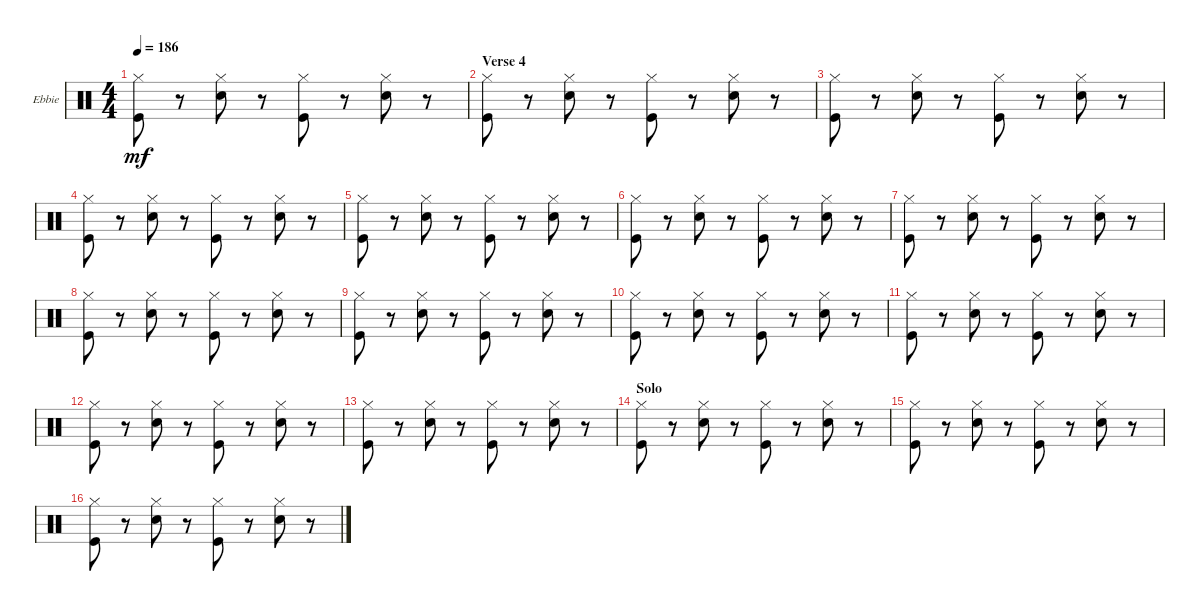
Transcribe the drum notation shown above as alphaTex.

\defaultSystemsLayout 4
\bracketExtendMode groupsimilarinstruments
\firstSystemTrackNameOrientation horizontal
\otherSystemsTrackNameOrientation horizontal
\track ("Ebbie Hardy" "Ebbie") {instrument percussion}
\staff {score}
\articulation defaults
\ts (4 4)
\tempo 186
\clef neutral
\scale
0.333333
\ks c
("Hi-Hat (closed)" "Kick (hit)").8{dy mf} r.8 ("Hi-Hat (closed)" "Snare (hit) 2").8 r.8 ("Hi-Hat (closed)" "Kick (hit)").8 r.8 ("Hi-Hat (closed)" "Snare (hit) 2").8 r.8 |
\section ("" "Verse 4")
\scale
0.333333 ("Hi-Hat (closed)" "Kick (hit)").8 r.8 ("Hi-Hat (closed)" "Snare (hit) 2").8 r.8 ("Hi-Hat (closed)" "Kick (hit)").8 r.8 ("Hi-Hat (closed)" "Snare (hit) 2").8 r.8 |
\scale
0.333333 ("Hi-Hat (closed)" "Kick (hit)").8 r.8 ("Hi-Hat (closed)" "Snare (hit) 2").8 r.8 ("Hi-Hat (closed)" "Kick (hit)").8 r.8 ("Hi-Hat (closed)" "Snare (hit) 2").8 r.8 |
\scale
0.333333 ("Hi-Hat (closed)" "Kick (hit)").8 r.8 ("Hi-Hat (closed)" "Snare (hit) 2").8 r.8 ("Hi-Hat (closed)" "Kick (hit)").8 r.8 ("Hi-Hat (closed)" "Snare (hit) 2").8 r.8 |
\scale
0.333333 ("Hi-Hat (closed)" "Kick (hit)").8 r.8 ("Hi-Hat (closed)" "Snare (hit) 2").8 r.8 ("Hi-Hat (closed)" "Kick (hit)").8 r.8 ("Hi-Hat (closed)" "Snare (hit) 2").8 r.8 |
\scale
0.333333 ("Hi-Hat (closed)" "Kick (hit)").8 r.8 ("Hi-Hat (closed)" "Snare (hit) 2").8 r.8 ("Hi-Hat (closed)" "Kick (hit)").8 r.8 ("Hi-Hat (closed)" "Snare (hit) 2").8 r.8 |
\scale
0.333333 ("Hi-Hat (closed)" "Kick (hit)").8 r.8 ("Hi-Hat (closed)" "Snare (hit) 2").8 r.8 ("Hi-Hat (closed)" "Kick (hit)").8 r.8 ("Hi-Hat (closed)" "Snare (hit) 2").8 r.8 |
\scale
0.333333 ("Hi-Hat (closed)" "Kick (hit)").8 r.8 ("Hi-Hat (closed)" "Snare (hit) 2").8 r.8 ("Hi-Hat (closed)" "Kick (hit)").8 r.8 ("Hi-Hat (closed)" "Snare (hit) 2").8 r.8 |
\scale
0.333333 ("Hi-Hat (closed)" "Kick (hit)").8 r.8 ("Hi-Hat (closed)" "Snare (hit) 2").8 r.8 ("Hi-Hat (closed)" "Kick (hit)").8 r.8 ("Hi-Hat (closed)" "Snare (hit) 2").8 r.8 |
\scale
0.333333 ("Hi-Hat (closed)" "Kick (hit)").8 r.8 ("Hi-Hat (closed)" "Snare (hit) 2").8 r.8 ("Hi-Hat (closed)" "Kick (hit)").8 r.8 ("Hi-Hat (closed)" "Snare (hit) 2").8 r.8 |
\scale
0.333333 ("Hi-Hat (closed)" "Kick (hit)").8 r.8 ("Hi-Hat (closed)" "Snare (hit) 2").8 r.8 ("Hi-Hat (closed)" "Kick (hit)").8 r.8 ("Hi-Hat (closed)" "Snare (hit) 2").8 r.8 |
\scale
0.333333 ("Hi-Hat (closed)" "Kick (hit)").8 r.8 ("Hi-Hat (closed)" "Snare (hit) 2").8 r.8 ("Hi-Hat (closed)" "Kick (hit)").8 r.8 ("Hi-Hat (closed)" "Snare (hit) 2").8 r.8 |
\scale
0.333333 ("Hi-Hat (closed)" "Kick (hit)").8 r.8 ("Hi-Hat (closed)" "Snare (hit) 2").8 r.8 ("Hi-Hat (closed)" "Kick (hit)").8 r.8 ("Hi-Hat (closed)" "Snare (hit) 2").8 r.8 |
\section ("" "Solo")
\scale
0.333333 ("Hi-Hat (closed)" "Kick (hit)").8 r.8 ("Hi-Hat (closed)" "Snare (hit) 2").8 r.8 ("Hi-Hat (closed)" "Kick (hit)").8 r.8 ("Hi-Hat (closed)" "Snare (hit) 2").8 r.8 |
\scale
0.333333 ("Hi-Hat (closed)" "Kick (hit)").8 r.8 ("Hi-Hat (closed)" "Snare (hit) 2").8 r.8 ("Hi-Hat (closed)" "Kick (hit)").8 r.8 ("Hi-Hat (closed)" "Snare (hit) 2").8 r.8 |
\scale
0.333333 ("Hi-Hat (closed)" "Kick (hit)").8 r.8 ("Hi-Hat (closed)" "Snare (hit) 2").8 r.8 ("Hi-Hat (closed)" "Kick (hit)").8 r.8 ("Hi-Hat (closed)" "Snare (hit) 2").8 r.8
